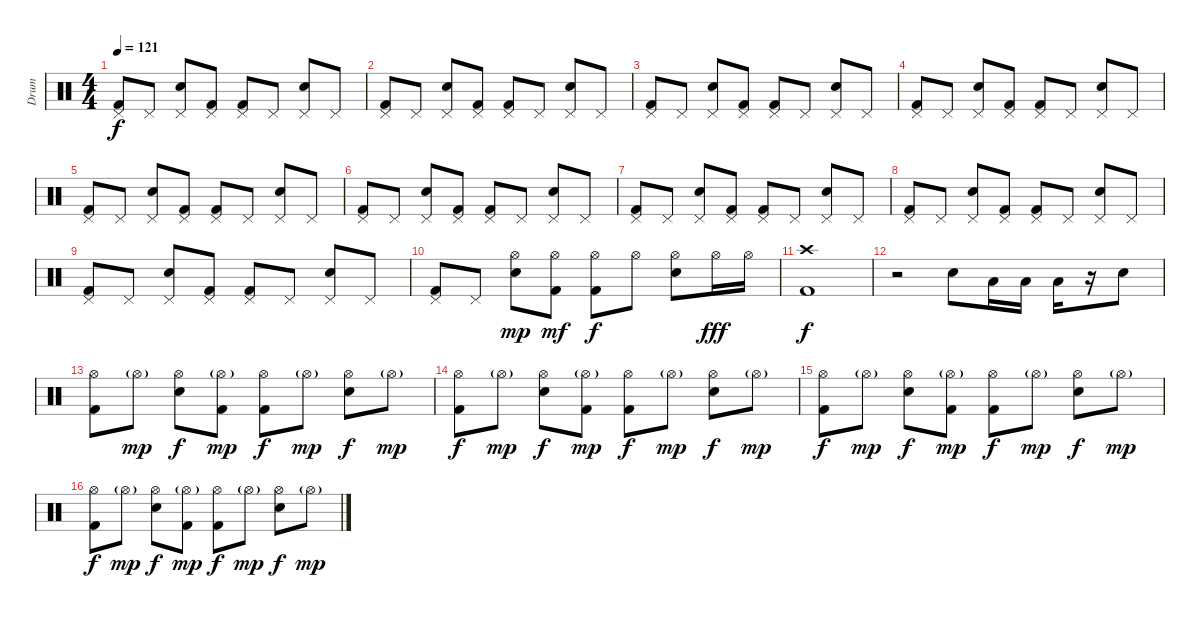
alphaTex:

\track ("Drum" "Drum") {instrument percussion}
\staff {score}
\articulation defaults
\ts (4 4)
\tempo 121
\clef neutral
\ks c
("Pedal Hi-Hat (hit)" "Kick (hit) 2").8{dy f} "Pedal Hi-Hat (hit)".8 ("Pedal Hi-Hat (hit)" "Snare (hit) 2").8 ("Pedal Hi-Hat (hit)" "Kick (hit) 2").8 ("Pedal Hi-Hat (hit)" "Kick (hit) 2").8 "Pedal Hi-Hat (hit)".8 ("Pedal Hi-Hat (hit)" "Snare (hit) 2").8 "Pedal Hi-Hat (hit)".8 |
("Pedal Hi-Hat (hit)" "Kick (hit) 2").8 "Pedal Hi-Hat (hit)".8 ("Pedal Hi-Hat (hit)" "Snare (hit) 2").8 ("Pedal Hi-Hat (hit)" "Kick (hit) 2").8 ("Pedal Hi-Hat (hit)" "Kick (hit) 2").8 "Pedal Hi-Hat (hit)".8 ("Pedal Hi-Hat (hit)" "Snare (hit) 2").8 "Pedal Hi-Hat (hit)".8 |
("Pedal Hi-Hat (hit)" "Kick (hit) 2").8 "Pedal Hi-Hat (hit)".8 ("Pedal Hi-Hat (hit)" "Snare (hit) 2").8 ("Pedal Hi-Hat (hit)" "Kick (hit) 2").8 ("Pedal Hi-Hat (hit)" "Kick (hit) 2").8 "Pedal Hi-Hat (hit)".8 ("Pedal Hi-Hat (hit)" "Snare (hit) 2").8 "Pedal Hi-Hat (hit)".8 |
("Pedal Hi-Hat (hit)" "Kick (hit) 2").8 "Pedal Hi-Hat (hit)".8 ("Pedal Hi-Hat (hit)" "Snare (hit) 2").8 ("Pedal Hi-Hat (hit)" "Kick (hit) 2").8 ("Pedal Hi-Hat (hit)" "Kick (hit) 2").8 "Pedal Hi-Hat (hit)".8 ("Pedal Hi-Hat (hit)" "Snare (hit) 2").8 "Pedal Hi-Hat (hit)".8 |
("Pedal Hi-Hat (hit)" "Kick (hit) 2").8 "Pedal Hi-Hat (hit)".8 ("Pedal Hi-Hat (hit)" "Snare (hit) 2").8 ("Pedal Hi-Hat (hit)" "Kick (hit) 2").8 ("Pedal Hi-Hat (hit)" "Kick (hit) 2").8 "Pedal Hi-Hat (hit)".8 ("Pedal Hi-Hat (hit)" "Snare (hit) 2").8 "Pedal Hi-Hat (hit)".8 |
("Pedal Hi-Hat (hit)" "Kick (hit) 2").8 "Pedal Hi-Hat (hit)".8 ("Pedal Hi-Hat (hit)" "Snare (hit) 2").8 ("Pedal Hi-Hat (hit)" "Kick (hit) 2").8 ("Pedal Hi-Hat (hit)" "Kick (hit) 2").8 "Pedal Hi-Hat (hit)".8 ("Pedal Hi-Hat (hit)" "Snare (hit) 2").8 "Pedal Hi-Hat (hit)".8 |
("Pedal Hi-Hat (hit)" "Kick (hit) 2").8 "Pedal Hi-Hat (hit)".8 ("Pedal Hi-Hat (hit)" "Snare (hit) 2").8 ("Pedal Hi-Hat (hit)" "Kick (hit) 2").8 ("Pedal Hi-Hat (hit)" "Kick (hit) 2").8 "Pedal Hi-Hat (hit)".8 ("Pedal Hi-Hat (hit)" "Snare (hit) 2").8 "Pedal Hi-Hat (hit)".8 |
("Pedal Hi-Hat (hit)" "Kick (hit) 2").8 "Pedal Hi-Hat (hit)".8 ("Pedal Hi-Hat (hit)" "Snare (hit) 2").8 ("Pedal Hi-Hat (hit)" "Kick (hit) 2").8 ("Pedal Hi-Hat (hit)" "Kick (hit) 2").8 "Pedal Hi-Hat (hit)".8 ("Pedal Hi-Hat (hit)" "Snare (hit) 2").8 "Pedal Hi-Hat (hit)".8 |
("Pedal Hi-Hat (hit)" "Kick (hit) 2").8 "Pedal Hi-Hat (hit)".8 ("Pedal Hi-Hat (hit)" "Snare (hit) 2").8 ("Pedal Hi-Hat (hit)" "Kick (hit) 2").8 ("Pedal Hi-Hat (hit)" "Kick (hit) 2").8 "Pedal Hi-Hat (hit)".8 ("Pedal Hi-Hat (hit)" "Snare (hit) 2").8 "Pedal Hi-Hat (hit)".8 |
("Pedal Hi-Hat (hit)" "Kick (hit) 2").8 "Pedal Hi-Hat (hit)".8 ("Hi-Hat (open)" "Snare (hit) 2").8{dy mp} ("Hi-Hat (open)" "Kick (hit) 2").8{dy mf} ("Hi-Hat (open)" "Kick (hit) 2").8{dy f} "Hi-Hat (open)".8 ("Hi-Hat (open)" "Snare (hit) 2").8 "Hi-Hat (open)".16{dy fff} "Hi-Hat (open)".16 |
("Crash high (hit)" "Kick (hit) 2").1{dy f} |
r.2 "Snare (hit) 2".8 "Low Tom (hit)".16 "Low Tom (hit)".16 "Low Tom (hit)".16 r.16 "Snare (hit) 2".8 |
("Hi-Hat (open)" "Kick (hit) 2").8 "Hi-Hat (open)"{g}.8{dy mp} ("Hi-Hat (open)" "Snare (hit) 2").8{dy f} ("Hi-Hat (open)"{g} "Kick (hit) 2").8{dy mp} ("Hi-Hat (open)" "Kick (hit) 2").8{dy f} "Hi-Hat (open)"{g}.8{dy mp} ("Hi-Hat (open)" "Snare (hit) 2").8{dy f} "Hi-Hat (open)"{g}.8{dy mp} |
("Hi-Hat (open)" "Kick (hit) 2").8{dy f} "Hi-Hat (open)"{g}.8{dy mp} ("Hi-Hat (open)" "Snare (hit) 2").8{dy f} ("Hi-Hat (open)"{g} "Kick (hit) 2").8{dy mp} ("Hi-Hat (open)" "Kick (hit) 2").8{dy f} "Hi-Hat (open)"{g}.8{dy mp} ("Hi-Hat (open)" "Snare (hit) 2").8{dy f} "Hi-Hat (open)"{g}.8{dy mp} |
("Hi-Hat (open)" "Kick (hit) 2").8{dy f} "Hi-Hat (open)"{g}.8{dy mp} ("Hi-Hat (open)" "Snare (hit) 2").8{dy f} ("Hi-Hat (open)"{g} "Kick (hit) 2").8{dy mp} ("Hi-Hat (open)" "Kick (hit) 2").8{dy f} "Hi-Hat (open)"{g}.8{dy mp} ("Hi-Hat (open)" "Snare (hit) 2").8{dy f} "Hi-Hat (open)"{g}.8{dy mp} |
("Hi-Hat (open)" "Kick (hit) 2").8{dy f} "Hi-Hat (open)"{g}.8{dy mp} ("Hi-Hat (open)" "Snare (hit) 2").8{dy f} ("Hi-Hat (open)"{g} "Kick (hit) 2").8{dy mp} ("Hi-Hat (open)" "Kick (hit) 2").8{dy f} "Hi-Hat (open)"{g}.8{dy mp} ("Hi-Hat (open)" "Snare (hit) 2").8{dy f} "Hi-Hat (open)"{g}.8{dy mp}
